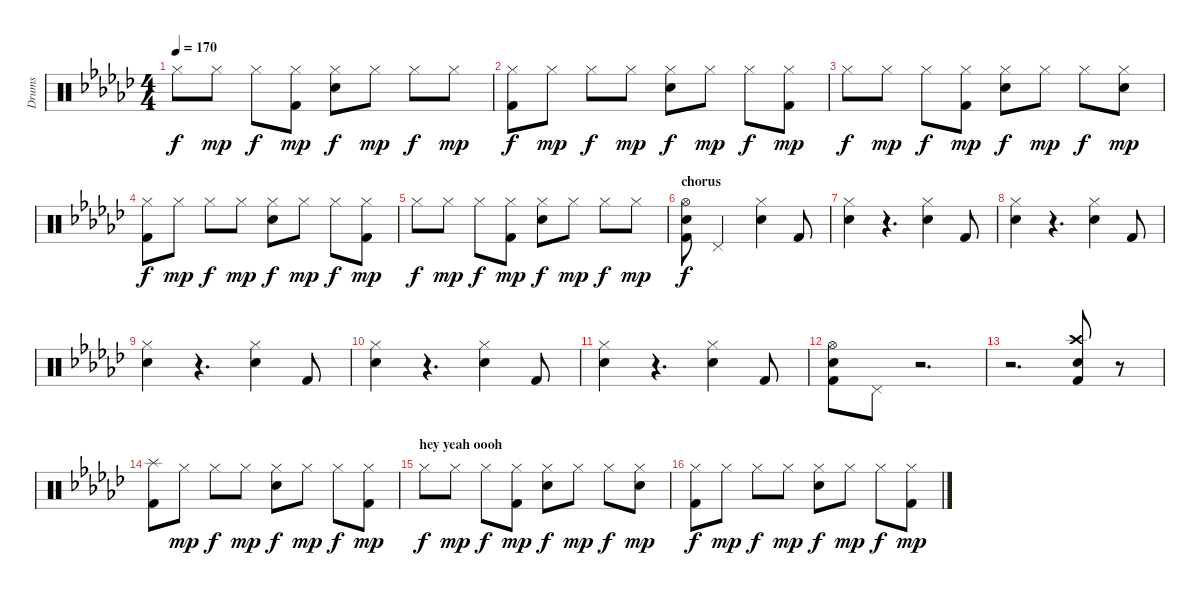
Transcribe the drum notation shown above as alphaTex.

\track ("Drums" "Drums") {instrument percussion}
\staff {score}
\articulation defaults
\ts (4 4)
\tempo 170
\clef neutral
\ks ebminor "Hi-Hat (closed)".8{dy f} "Hi-Hat (closed)".8{dy mp} "Hi-Hat (closed)".8{dy f}
("Hi-Hat (closed)" "Kick (hit) 2").8{dy mp} ("Hi-Hat (closed)" "Snare (hit) 2").8{dy f} "Hi-Hat (closed)".8{dy mp} "Hi-Hat (closed)".8{dy f} "Hi-Hat (closed)".8{dy mp} |
("Hi-Hat (closed)" "Kick (hit) 2").8{dy f} "Hi-Hat (closed)".8{dy mp} "Hi-Hat (closed)".8{dy f} "Hi-Hat (closed)".8{dy mp} ("Hi-Hat (closed)" "Snare (hit) 2").8{dy f} "Hi-Hat (closed)".8{dy mp} "Hi-Hat (closed)".8{dy f} ("Hi-Hat (closed)" "Kick (hit) 2").8{dy mp} |
"Hi-Hat (closed)".8{dy f} "Hi-Hat (closed)".8{dy mp} "Hi-Hat (closed)".8{dy f} ("Hi-Hat (closed)" "Kick (hit) 2").8{dy mp} ("Hi-Hat (closed)" "Snare (hit) 2").8{dy f} "Hi-Hat (closed)".8{dy mp} "Hi-Hat (closed)".8{dy f} ("Hi-Hat (closed)" "Snare (hit) 2").8{dy mp} |
("Hi-Hat (closed)" "Kick (hit) 2").8{dy f} "Hi-Hat (closed)".8{dy mp} "Hi-Hat (closed)".8{dy f} "Hi-Hat (closed)".8{dy mp} ("Hi-Hat (closed)" "Snare (hit) 2").8{dy f} "Hi-Hat (closed)".8{dy mp} "Hi-Hat (closed)".8{dy f} ("Hi-Hat (closed)" "Kick (hit) 2").8{dy mp} |
"Hi-Hat (closed)".8{dy f} "Hi-Hat (closed)".8{dy mp} "Hi-Hat (closed)".8{dy f} ("Hi-Hat (closed)" "Kick (hit) 2").8{dy mp} ("Hi-Hat (closed)" "Snare (hit) 2").8{dy f} "Hi-Hat (closed)".8{dy mp} "Hi-Hat (closed)".8{dy f} "Hi-Hat (closed)".8{dy mp} |
\section ("" "chorus")
("Hi-Hat (open)" "Snare (hit) 2" "Kick (hit) 2").8{dy f} "Pedal Hi-Hat (hit)".2 ("Hi-Hat (closed)" "Snare (hit) 2").4 "Kick (hit) 2".8 |
("Hi-Hat (closed)" "Snare (hit) 2").4 r.4{d} ("Hi-Hat (closed)" "Snare (hit) 2").4 "Kick (hit) 2".8 |
("Hi-Hat (closed)" "Snare (hit) 2").4 r.4{d} ("Hi-Hat (closed)" "Snare (hit) 2").4 "Kick (hit) 2".8 |
("Hi-Hat (closed)" "Snare (hit) 2").4 r.4{d} ("Hi-Hat (closed)" "Snare (hit) 2").4 "Kick (hit) 2".8 |
("Hi-Hat (closed)" "Snare (hit) 2").4 r.4{d} ("Hi-Hat (closed)" "Snare (hit) 2").4 "Kick (hit) 2".8 |
("Hi-Hat (closed)" "Snare (hit) 2").4 r.4{d} ("Hi-Hat (closed)" "Snare (hit) 2").4 "Kick (hit) 2".8 |
("Hi-Hat (open)" "Snare (hit) 2" "Kick (hit) 2").8 "Pedal Hi-Hat (hit)".8 r.2{d} |
r.2{d} ("Crash high (hit)" "Electric Snare (hit)" "Kick (hit) 2").8 r.8 |
("Splash (hit)" "Kick (hit) 2").8 "Hi-Hat (closed)".8{dy mp} "Hi-Hat (closed)".8{dy f} "Hi-Hat (closed)".8{dy mp} ("Hi-Hat (closed)" "Snare (hit) 2").8{dy f} "Hi-Hat (closed)".8{dy mp} "Hi-Hat (closed)".8{dy f} ("Hi-Hat (closed)" "Kick (hit) 2").8{dy mp} |
\section ("" "hey yeah oooh")
"Hi-Hat (closed)".8{dy f} "Hi-Hat (closed)".8{dy mp} "Hi-Hat (closed)".8{dy f} ("Hi-Hat (closed)" "Kick (hit) 2").8{dy mp} ("Hi-Hat (closed)" "Snare (hit) 2").8{dy f} "Hi-Hat (closed)".8{dy mp} "Hi-Hat (closed)".8{dy f} ("Hi-Hat (closed)" "Snare (hit) 2").8{dy mp} |
("Hi-Hat (closed)" "Kick (hit) 2").8{dy f} "Hi-Hat (closed)".8{dy mp} "Hi-Hat (closed)".8{dy f} "Hi-Hat (closed)".8{dy mp} ("Hi-Hat (closed)" "Snare (hit) 2").8{dy f} "Hi-Hat (closed)".8{dy mp} "Hi-Hat (closed)".8{dy f} ("Hi-Hat (closed)" "Kick (hit) 2").8{dy mp}
